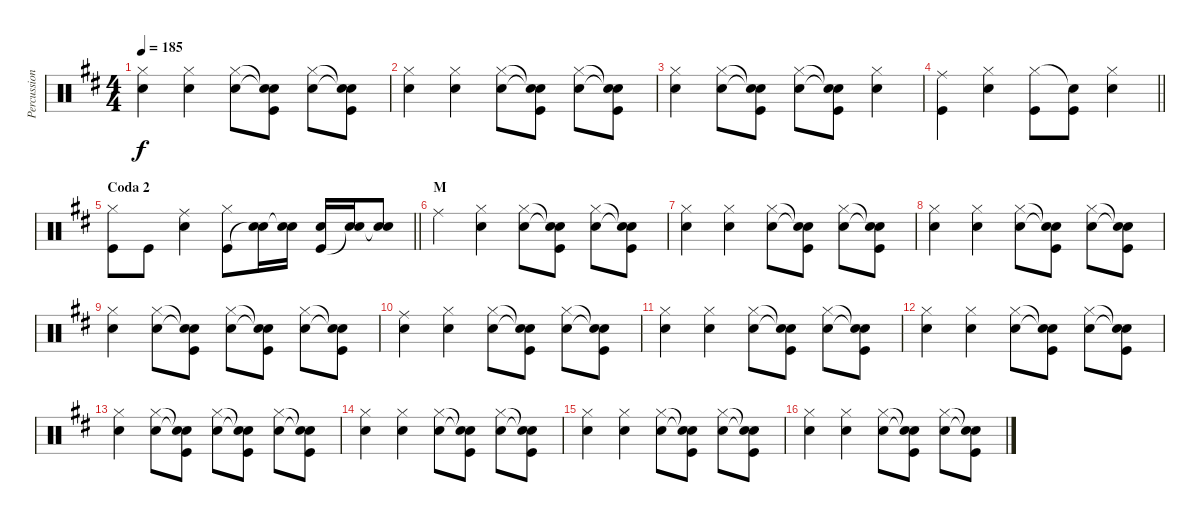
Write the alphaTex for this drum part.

\track ("Percussion" "Percussion") {instrument percussion}
\staff {score}
\articulation defaults
\ts (4 4)
\tempo 185
\clef neutral
\ks d
("Hi-Hat (closed)" "Snare (hit) 2").4{dy f} ("Hi-Hat (closed)" "Snare (hit) 2").4 ("Hi-Hat (closed)" "Snare (hit) 2").8 ("Snare (hit)"{t} "Snare (hit)"{t} "Kick (hit)").8 ("Hi-Hat (closed)" "Snare (hit) 2").8 ("Snare (hit)"{t} "Snare (hit)"{t} "Kick (hit)").8 |
("Hi-Hat (closed)" "Snare (hit) 2").4 ("Hi-Hat (closed)" "Snare (hit) 2").4 ("Hi-Hat (closed)" "Snare (hit) 2").8 ("Snare (hit)"{t} "Snare (hit)"{t} "Kick (hit)").8 ("Hi-Hat (closed)" "Snare (hit) 2").8 ("Snare (hit)"{t} "Snare (hit)"{t} "Kick (hit)").8 |
("Hi-Hat (closed)" "Snare (hit) 2").4 ("Hi-Hat (closed)" "Snare (hit) 2").8 ("Snare (hit)"{t} "Snare (hit)"{t} "Kick (hit)").8 ("Hi-Hat (closed)" "Snare (hit) 2").8 ("Snare (hit)"{t} "Snare (hit)"{t} "Kick (hit)").8 ("Hi-Hat (closed)" "Snare (hit) 2").4 |
\barLineRight lightlight
("Ride (middle)" "Kick (hit)").4 ("Hi-Hat (closed)" "Snare (hit) 2").4 ("Hi-Hat (closed)" "Kick (hit)").8 ("Snare (hit)"{t} "Kick (hit)").8 ("Hi-Hat (closed)" "Snare (hit) 2").4 |
\section ("" "Coda 2")
\barLineRight lightlight
("Hi-Hat (closed)" "Kick (hit)").8 "Kick (hit)".8 ("Ride (middle)" "Snare (hit) 2").4 ("Hi-Hat (closed)" "Kick (hit)").8 ("Snare (hit) 2" "Snare (hit)"{t}).16 ("Snare (hit) 2" "Snare (hit)"{t}).16 ("Snare (hit) 2" "Kick (hit)").16 ("Snare (hit) 2" "Snare (hit)"{t}).16 ("Snare (hit) 2" "Snare (hit)"{t}).8 |
\section ("" "M")
"Ride (middle)".4 ("Hi-Hat (closed)" "Snare (hit) 2").4 ("Hi-Hat (closed)" "Snare (hit) 2").8 ("Snare (hit)"{t} "Snare (hit)"{t} "Kick (hit)").8 ("Hi-Hat (closed)" "Snare (hit) 2").8 ("Snare (hit)"{t} "Snare (hit)"{t} "Kick (hit)").8 |
("Hi-Hat (closed)" "Snare (hit) 2").4 ("Hi-Hat (closed)" "Snare (hit) 2").4 ("Hi-Hat (closed)" "Snare (hit) 2").8 ("Snare (hit)"{t} "Snare (hit)"{t} "Kick (hit)").8 ("Hi-Hat (closed)" "Snare (hit) 2").8 ("Snare (hit)"{t} "Snare (hit)"{t} "Kick (hit)").8 |
("Hi-Hat (closed)" "Snare (hit) 2").4 ("Hi-Hat (closed)" "Snare (hit) 2").4 ("Hi-Hat (closed)" "Snare (hit) 2").8 ("Snare (hit)"{t} "Snare (hit)"{t} "Kick (hit)").8 ("Hi-Hat (closed)" "Snare (hit) 2").8 ("Snare (hit)"{t} "Snare (hit)"{t} "Kick (hit)").8 |
("Hi-Hat (closed)" "Snare (hit) 2").4 ("Hi-Hat (closed)" "Snare (hit) 2").8 ("Snare (hit)"{t} "Snare (hit)"{t} "Kick (hit)").8 ("Hi-Hat (closed)" "Snare (hit) 2").8 ("Snare (hit)"{t} "Snare (hit)"{t} "Kick (hit)").8 ("Hi-Hat (closed)" "Snare (hit) 2").8 ("Snare (hit)"{t} "Snare (hit)"{t} "Kick (hit)").8 |
("Ride (middle)" "Snare (hit) 2").4 ("Hi-Hat (closed)" "Snare (hit) 2").4 ("Hi-Hat (closed)" "Snare (hit) 2").8 ("Snare (hit)"{t} "Snare (hit)"{t} "Kick (hit)").8 ("Hi-Hat (closed)" "Snare (hit) 2").8 ("Snare (hit)"{t} "Snare (hit)"{t} "Kick (hit)").8 |
("Hi-Hat (closed)" "Snare (hit) 2").4 ("Hi-Hat (closed)" "Snare (hit) 2").4 ("Hi-Hat (closed)" "Snare (hit) 2").8 ("Snare (hit)"{t} "Snare (hit)"{t} "Kick (hit)").8 ("Hi-Hat (closed)" "Snare (hit) 2").8 ("Snare (hit)"{t} "Snare (hit)"{t} "Kick (hit)").8 |
("Hi-Hat (closed)" "Snare (hit) 2").4 ("Hi-Hat (closed)" "Snare (hit) 2").4 ("Hi-Hat (closed)" "Snare (hit) 2").8 ("Snare (hit)"{t} "Snare (hit)"{t} "Kick (hit)").8 ("Hi-Hat (closed)" "Snare (hit) 2").8 ("Snare (hit)"{t} "Snare (hit)"{t} "Kick (hit)").8 |
("Hi-Hat (closed)" "Snare (hit) 2").4 ("Hi-Hat (closed)" "Snare (hit) 2").8 ("Snare (hit)"{t} "Snare (hit)"{t} "Kick (hit)").8 ("Hi-Hat (closed)" "Snare (hit) 2").8 ("Snare (hit)"{t} "Snare (hit)"{t} "Kick (hit)").8 ("Hi-Hat (closed)" "Snare (hit) 2").8 ("Snare (hit)"{t} "Snare (hit)"{t} "Kick (hit)").8 |
("Hi-Hat (closed)" "Snare (hit) 2").4 ("Hi-Hat (closed)" "Snare (hit) 2").4 ("Hi-Hat (closed)" "Snare (hit) 2").8 ("Snare (hit)"{t} "Snare (hit)"{t} "Kick (hit)").8 ("Hi-Hat (closed)" "Snare (hit) 2").8 ("Snare (hit)"{t} "Snare (hit)"{t} "Kick (hit)").8 |
("Hi-Hat (closed)" "Snare (hit) 2").4 ("Hi-Hat (closed)" "Snare (hit) 2").4 ("Hi-Hat (closed)" "Snare (hit) 2").8 ("Snare (hit)"{t} "Snare (hit)"{t} "Kick (hit)").8 ("Hi-Hat (closed)" "Snare (hit) 2").8 ("Snare (hit)"{t} "Snare (hit)"{t} "Kick (hit)").8 |
("Hi-Hat (closed)" "Snare (hit) 2").4 ("Hi-Hat (closed)" "Snare (hit) 2").4 ("Hi-Hat (closed)" "Snare (hit) 2").8 ("Snare (hit)"{t} "Snare (hit)"{t} "Kick (hit)").8 ("Hi-Hat (closed)" "Snare (hit) 2").8 ("Snare (hit)"{t} "Snare (hit)"{t} "Kick (hit)").8
